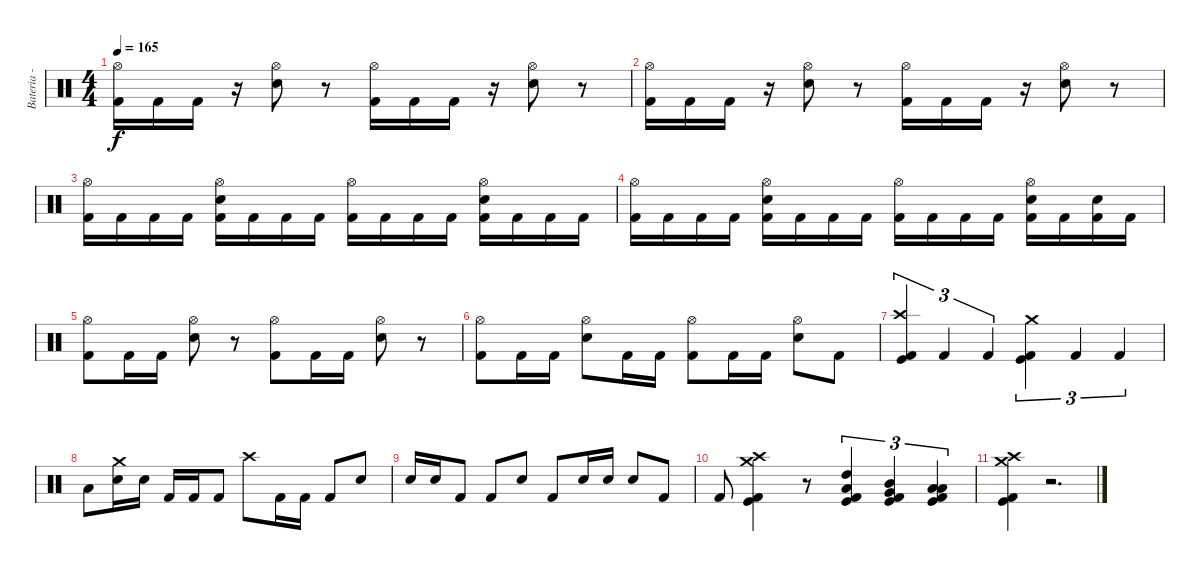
\track ("Bateria - Drums" "Bateria - ") {instrument percussion}
\staff {score}
\articulation defaults
\ts (4 4)
\tempo 165
\clef neutral
\ks c
("Hi-Hat (open)" "Kick (hit) 2").16{dy f} "Kick (hit) 2".16 "Kick (hit) 2".16 r.16 ("Hi-Hat (open)" "Electric Snare (hit)").8 r.8 ("Hi-Hat (open)" "Kick (hit) 2").16 "Kick (hit) 2".16 "Kick (hit) 2".16 r.16 ("Hi-Hat (open)" "Electric Snare (hit)").8 r.8 |
("Hi-Hat (open)" "Kick (hit) 2").16 "Kick (hit) 2".16 "Kick (hit) 2".16 r.16 ("Hi-Hat (open)" "Electric Snare (hit)").8 r.8 ("Hi-Hat (open)" "Kick (hit) 2").16 "Kick (hit) 2".16 "Kick (hit) 2".16 r.16 ("Hi-Hat (open)" "Electric Snare (hit)").8 r.8 |
("Hi-Hat (open)" "Kick (hit) 2").16 "Kick (hit) 2".16 "Kick (hit) 2".16 "Kick (hit) 2".16 ("Hi-Hat (open)" "Electric Snare (hit)" "Kick (hit) 2").16 "Kick (hit) 2".16 "Kick (hit) 2".16 "Kick (hit) 2".16 ("Hi-Hat (open)" "Kick (hit) 2").16 "Kick (hit) 2".16 "Kick (hit) 2".16 "Kick (hit) 2".16 ("Hi-Hat (open)" "Electric Snare (hit)" "Kick (hit) 2").16 "Kick (hit) 2".16 "Kick (hit) 2".16 "Kick (hit) 2".16 |
("Hi-Hat (open)" "Kick (hit) 2").16 "Kick (hit) 2".16 "Kick (hit) 2".16 "Kick (hit) 2".16 ("Hi-Hat (open)" "Electric Snare (hit)" "Kick (hit) 2").16 "Kick (hit) 2".16 "Kick (hit) 2".16 "Kick (hit) 2".16 ("Hi-Hat (open)" "Kick (hit) 2").16 "Kick (hit) 2".16 "Kick (hit) 2".16 "Kick (hit) 2".16 ("Hi-Hat (open)" "Electric Snare (hit)" "Kick (hit) 2").16 "Kick (hit) 2".16 ("Electric Snare (hit)" "Kick (hit) 2").16 "Kick (hit) 2".16 |
("Hi-Hat (open)" "Kick (hit) 2").8 "Kick (hit) 2".16 "Kick (hit) 2".16 ("Hi-Hat (open)" "Electric Snare (hit)").8 r.8 ("Hi-Hat (open)" "Kick (hit) 2").8 "Kick (hit) 2".16 "Kick (hit) 2".16 ("Hi-Hat (open)" "Electric Snare (hit)").8 r.8 |
("Hi-Hat (open)" "Kick (hit) 2").8 "Kick (hit) 2".16 "Kick (hit) 2".16 ("Hi-Hat (open)" "Electric Snare (hit)").8 "Kick (hit) 2".16 "Kick (hit) 2".16 ("Hi-Hat (open)" "Kick (hit) 2").8 "Kick (hit) 2".16 "Kick (hit) 2".16 ("Hi-Hat (open)" "Electric Snare (hit)").8 "Kick (hit) 2".8 |
("Crash high (hit)" "Kick (hit)" "Kick (hit) 2").4{tu (3 2)} "Kick (hit) 2".4{tu (3 2)} "Kick (hit) 2".4{tu (3 2)} ("Crash medium (hit)" "Kick (hit)" "Kick (hit) 2").4{tu (3 2)} "Kick (hit) 2".4{tu (3 2)} "Kick (hit) 2".4{tu (3 2)} |
"Low Tom (hit)".8 ("Crash medium (hit)" "Electric Snare (hit)").16 "Electric Snare (hit)".16 "Kick (hit) 2".16 "Kick (hit) 2".16 "Kick (hit) 2".8 "Crash high (hit)".8 "Kick (hit) 2".16 "Kick (hit) 2".16 "Kick (hit) 2".8 "Electric Snare (hit)".8 |
"Electric Snare (hit)".16 "Electric Snare (hit)".16 "Kick (hit) 2".8 "Kick (hit) 2".8 "Electric Snare (hit)".8 "Kick (hit) 2".8 "Electric Snare (hit)".16 "Electric Snare (hit)".16 "Electric Snare (hit)".8 "Kick (hit) 2".8 |
"Kick (hit) 2".8 ("Crash medium (hit)" "Crash high (hit)" "Kick (hit)" "Kick (hit) 2").4 r.8 ("High Tom (hit)" "Low Tom (hit)" "Kick (hit)" "Kick (hit) 2").4{tu (3 2)} ("Mid Tom (hit)" "Very Low Tom (hit)" "Kick (hit)" "Kick (hit) 2").4{tu (3 2)} ("Low Tom (hit)" "Low Floor Tom (hit)" "Kick (hit)" "Kick (hit) 2").4{tu (3 2)} |
("Crash medium (hit)" "Crash high (hit)" "Kick (hit)" "Kick (hit) 2").4 r.2{d}
